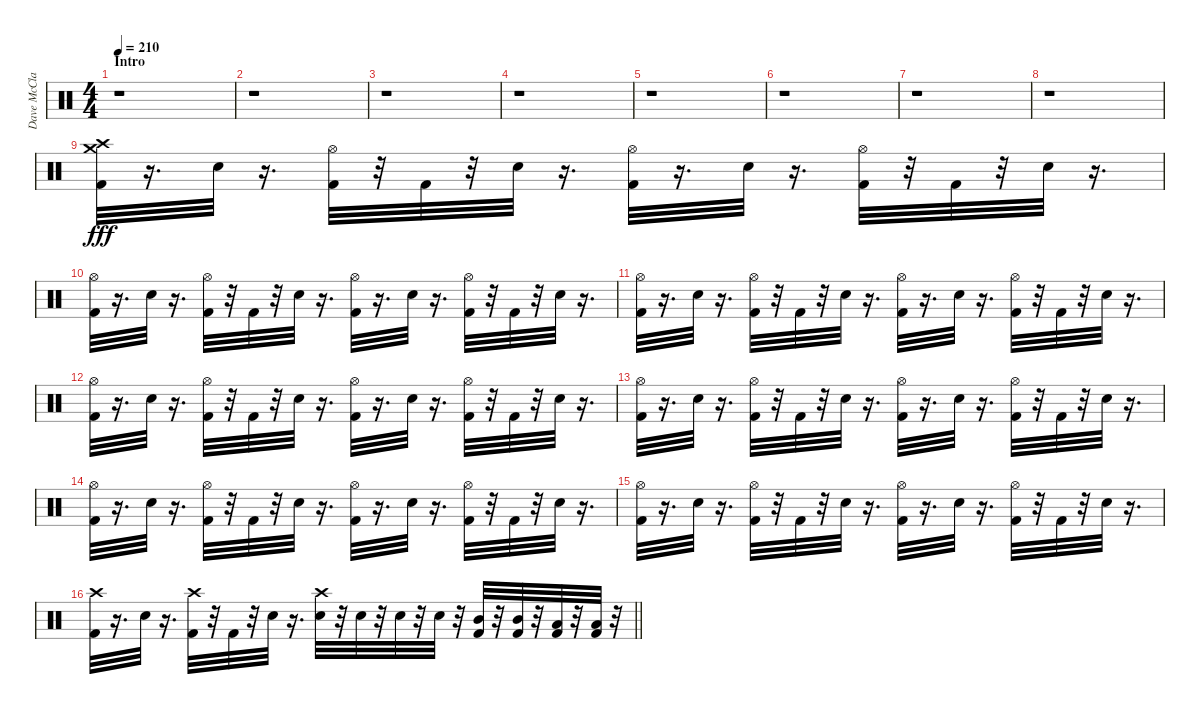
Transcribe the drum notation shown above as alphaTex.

\track ("Dave McClain" "Dave McCla") {instrument percussion}
\staff {score}
\articulation defaults
\ts (4 4)
\section ("" "Intro")
\tempo 210
\clef neutral
\ks c
r.1{dy fff} |
r.1 |
r.1 |
r.1 |
r.1 |
r.1 |
r.1 |
r.1 |
("Crash medium (hit)" "Crash high (hit)" "Kick (hit) 2").32 r.16{d} "Snare (hit) 2".32 r.16{d} ("Kick (hit) 2" "Hi-Hat (open)").32 r.32 "Kick (hit) 2".32 r.32 "Snare (hit) 2".32 r.16{d} ("Hi-Hat (open)" "Kick (hit) 2").32 r.16{d} "Snare (hit) 2".32 r.16{d} ("Hi-Hat (open)" "Kick (hit) 2").32 r.32 "Kick (hit) 2".32 r.32 "Snare (hit) 2".32 r.16{d} |
("Hi-Hat (open)" "Kick (hit) 2").32 r.16{d} "Snare (hit) 2".32 r.16{d} ("Hi-Hat (open)" "Kick (hit) 2").32 r.32 "Kick (hit) 2".32 r.32 "Snare (hit) 2".32 r.16{d} ("Hi-Hat (open)" "Kick (hit) 2").32 r.16{d} "Snare (hit) 2".32 r.16{d} ("Hi-Hat (open)" "Kick (hit) 2").32 r.32 "Kick (hit) 2".32 r.32 "Snare (hit) 2".32 r.16{d} |
("Hi-Hat (open)" "Kick (hit) 2").32 r.16{d} "Snare (hit) 2".32 r.16{d} ("Hi-Hat (open)" "Kick (hit) 2").32 r.32 "Kick (hit) 2".32 r.32 "Snare (hit) 2".32 r.16{d} ("Hi-Hat (open)" "Kick (hit) 2").32 r.16{d} "Snare (hit) 2".32 r.16{d} ("Hi-Hat (open)" "Kick (hit) 2").32 r.32 "Kick (hit) 2".32 r.32 "Snare (hit) 2".32 r.16{d} |
("Hi-Hat (open)" "Kick (hit) 2").32 r.16{d} "Snare (hit) 2".32 r.16{d} ("Hi-Hat (open)" "Kick (hit) 2").32 r.32 "Kick (hit) 2".32 r.32 "Snare (hit) 2".32 r.16{d} ("Hi-Hat (open)" "Kick (hit) 2").32 r.16{d} "Snare (hit) 2".32 r.16{d} ("Hi-Hat (open)" "Kick (hit) 2").32 r.32 "Kick (hit) 2".32 r.32 "Snare (hit) 2".32 r.16{d} |
("Hi-Hat (open)" "Kick (hit) 2").32 r.16{d} "Snare (hit) 2".32 r.16{d} ("Kick (hit) 2" "Hi-Hat (open)").32 r.32 "Kick (hit) 2".32 r.32 "Snare (hit) 2".32 r.16{d} ("Hi-Hat (open)" "Kick (hit) 2").32 r.16{d} "Snare (hit) 2".32 r.16{d} ("Hi-Hat (open)" "Kick (hit) 2").32 r.32 "Kick (hit) 2".32 r.32 "Snare (hit) 2".32 r.16{d} |
("Hi-Hat (open)" "Kick (hit) 2").32 r.16{d} "Snare (hit) 2".32 r.16{d} ("Hi-Hat (open)" "Kick (hit) 2").32 r.32 "Kick (hit) 2".32 r.32 "Snare (hit) 2".32 r.16{d} ("Hi-Hat (open)" "Kick (hit) 2").32 r.16{d} "Snare (hit) 2".32 r.16{d} ("Hi-Hat (open)" "Kick (hit) 2").32 r.32 "Kick (hit) 2".32 r.32 "Snare (hit) 2".32 r.16{d} |
("Hi-Hat (open)" "Kick (hit) 2").32 r.16{d} "Snare (hit) 2".32 r.16{d} ("Hi-Hat (open)" "Kick (hit) 2").32 r.32 "Kick (hit) 2".32 r.32 "Snare (hit) 2".32 r.16{d} ("Hi-Hat (open)" "Kick (hit) 2").32 r.16{d} "Snare (hit) 2".32 r.16{d} ("Hi-Hat (open)" "Kick (hit) 2").32 r.32 "Kick (hit) 2".32 r.32 "Snare (hit) 2".32 r.16{d} |
\barLineRight lightlight
("Crash high (hit)" "Kick (hit) 2").32 r.16{d} "Snare (hit) 2".32 r.16{d} ("Crash high (hit)" "Kick (hit) 2").32 r.32 "Kick (hit) 2".32 r.32 "Snare (hit) 2".32 r.16{d} ("Crash high (hit)" "Snare (hit) 2").32 r.32 "Snare (hit) 2".32 r.32 "Snare (hit) 2".32 r.32 "Snare (hit) 2".32 r.32 ("Mid Tom (hit)" "Kick (hit) 2").32 r.32 ("Mid Tom (hit)" "Kick (hit) 2").32 r.32 ("Low Tom (hit)" "Kick (hit) 2").32 r.32 ("Low Tom (hit)" "Kick (hit) 2").32 r.32
